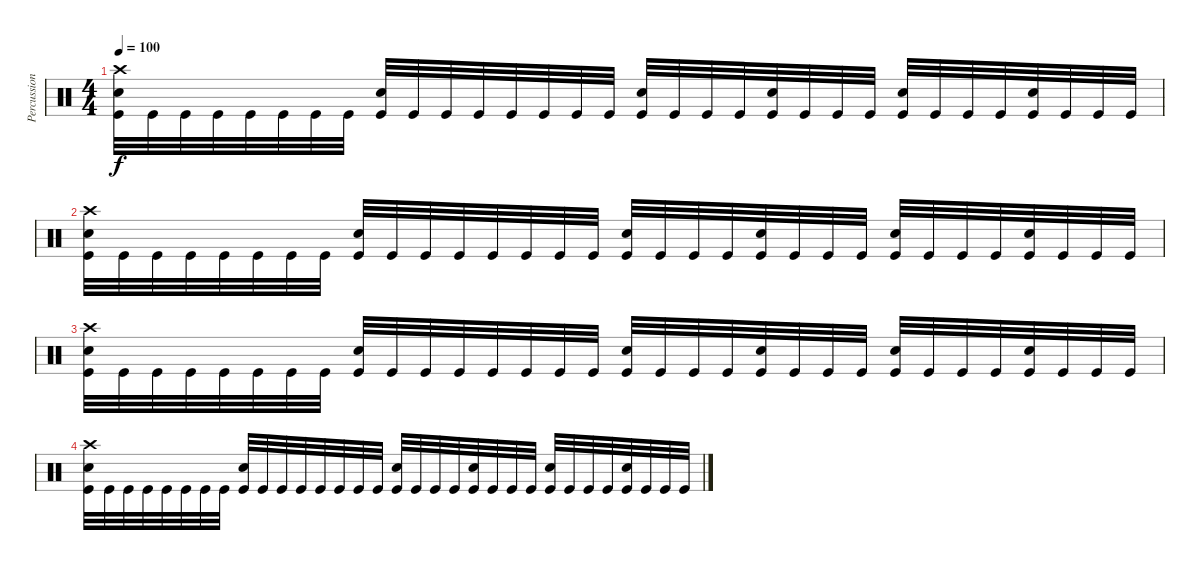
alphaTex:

\track ("Percussions" "Percussion") {instrument percussion}
\staff {score}
\articulation defaults
\ts (4 4)
\tempo 100
\clef neutral
\ks c
("Kick (hit)" "Electric Snare (hit)" "Crash high (hit)").32{dy f} "Kick (hit)".32 "Kick (hit)".32 "Kick (hit)".32 "Kick (hit)".32 "Kick (hit)".32 "Kick (hit)".32 "Kick (hit)".32 ("Kick (hit)" "Electric Snare (hit)").32 "Kick (hit)".32 "Kick (hit)".32 "Kick (hit)".32 "Kick (hit)".32 "Kick (hit)".32 "Kick (hit)".32 "Kick (hit)".32 ("Kick (hit)" "Electric Snare (hit)").32 "Kick (hit)".32 "Kick (hit)".32 "Kick (hit)".32 ("Kick (hit)" "Electric Snare (hit)").32 "Kick (hit)".32 "Kick (hit)".32 "Kick (hit)".32 ("Kick (hit)" "Electric Snare (hit)").32 "Kick (hit)".32 "Kick (hit)".32 "Kick (hit)".32 ("Kick (hit)" "Electric Snare (hit)").32 "Kick (hit)".32 "Kick (hit)".32 "Kick (hit)".32 |
("Kick (hit)" "Electric Snare (hit)" "Crash high (hit)").32 "Kick (hit)".32 "Kick (hit)".32 "Kick (hit)".32 "Kick (hit)".32 "Kick (hit)".32 "Kick (hit)".32 "Kick (hit)".32 ("Kick (hit)" "Electric Snare (hit)").32 "Kick (hit)".32 "Kick (hit)".32 "Kick (hit)".32 "Kick (hit)".32 "Kick (hit)".32 "Kick (hit)".32 "Kick (hit)".32 ("Kick (hit)" "Electric Snare (hit)").32 "Kick (hit)".32 "Kick (hit)".32 "Kick (hit)".32 ("Kick (hit)" "Electric Snare (hit)").32 "Kick (hit)".32 "Kick (hit)".32 "Kick (hit)".32 ("Kick (hit)" "Electric Snare (hit)").32 "Kick (hit)".32 "Kick (hit)".32 "Kick (hit)".32 ("Kick (hit)" "Electric Snare (hit)").32 "Kick (hit)".32 "Kick (hit)".32 "Kick (hit)".32 |
("Kick (hit)" "Electric Snare (hit)" "Crash high (hit)").32 "Kick (hit)".32 "Kick (hit)".32 "Kick (hit)".32 "Kick (hit)".32 "Kick (hit)".32 "Kick (hit)".32 "Kick (hit)".32 ("Kick (hit)" "Electric Snare (hit)").32 "Kick (hit)".32 "Kick (hit)".32 "Kick (hit)".32 "Kick (hit)".32 "Kick (hit)".32 "Kick (hit)".32 "Kick (hit)".32 ("Kick (hit)" "Electric Snare (hit)").32 "Kick (hit)".32 "Kick (hit)".32 "Kick (hit)".32 ("Kick (hit)" "Electric Snare (hit)").32 "Kick (hit)".32 "Kick (hit)".32 "Kick (hit)".32 ("Kick (hit)" "Electric Snare (hit)").32 "Kick (hit)".32 "Kick (hit)".32 "Kick (hit)".32 ("Kick (hit)" "Electric Snare (hit)").32 "Kick (hit)".32 "Kick (hit)".32 "Kick (hit)".32 |
("Kick (hit)" "Electric Snare (hit)" "Crash high (hit)").32 "Kick (hit)".32 "Kick (hit)".32 "Kick (hit)".32 "Kick (hit)".32 "Kick (hit)".32 "Kick (hit)".32 "Kick (hit)".32 ("Kick (hit)" "Electric Snare (hit)").32 "Kick (hit)".32 "Kick (hit)".32 "Kick (hit)".32 "Kick (hit)".32 "Kick (hit)".32 "Kick (hit)".32 "Kick (hit)".32 ("Kick (hit)" "Electric Snare (hit)").32 "Kick (hit)".32 "Kick (hit)".32 "Kick (hit)".32 ("Kick (hit)" "Electric Snare (hit)").32 "Kick (hit)".32 "Kick (hit)".32 "Kick (hit)".32 ("Kick (hit)" "Electric Snare (hit)").32 "Kick (hit)".32 "Kick (hit)".32 "Kick (hit)".32 ("Kick (hit)" "Electric Snare (hit)").32 "Kick (hit)".32 "Kick (hit)".32 "Kick (hit)".32
